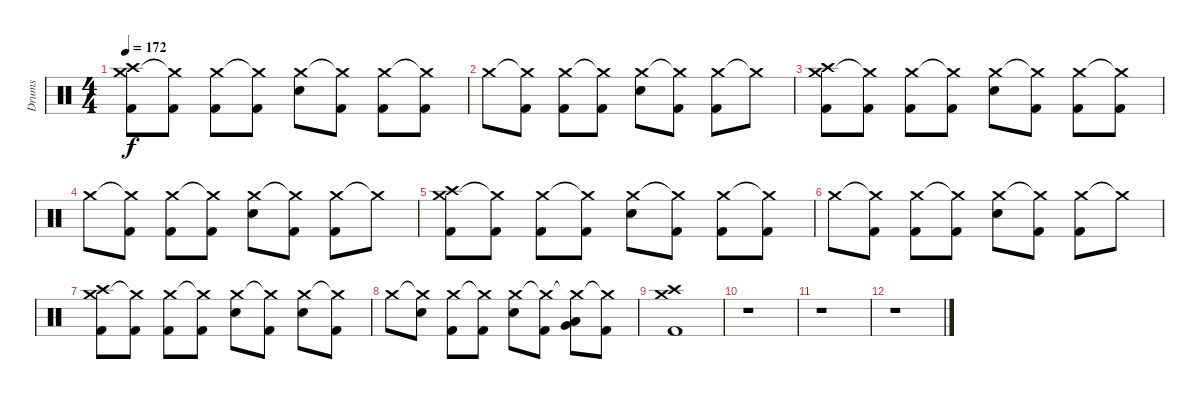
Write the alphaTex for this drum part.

\track ("Drums" "Drums") {instrument percussion}
\staff {score}
\articulation defaults
\ts (4 4)
\tempo 172
\clef neutral
\ks c
("Crash medium (hit)" "Crash high (hit)" "Kick (hit) 2").8{dy f} ("Crash medium (hit)"{t} "Kick (hit) 2").8 ("Crash medium (hit)" "Kick (hit) 2").8 ("Crash medium (hit)"{t} "Kick (hit) 2").8 ("Crash medium (hit)" "Electric Snare (hit)").8 ("Crash medium (hit)"{t} "Kick (hit) 2").8 ("Crash medium (hit)" "Kick (hit) 2").8 ("Crash medium (hit)"{t} "Kick (hit) 2").8 |
"Crash medium (hit)".8 ("Crash medium (hit)"{t} "Kick (hit) 2").8 ("Crash medium (hit)" "Kick (hit) 2").8 ("Crash medium (hit)"{t} "Kick (hit) 2").8 ("Crash medium (hit)" "Electric Snare (hit)").8 ("Crash medium (hit)"{t} "Kick (hit) 2").8 ("Crash medium (hit)" "Kick (hit) 2").8 "Crash medium (hit)"{t}.8 |
("Crash medium (hit)" "Crash high (hit)" "Kick (hit) 2").8 ("Crash medium (hit)"{t} "Kick (hit) 2").8 ("Crash medium (hit)" "Kick (hit) 2").8 ("Crash medium (hit)"{t} "Kick (hit) 2").8 ("Crash medium (hit)" "Electric Snare (hit)").8 ("Crash medium (hit)"{t} "Kick (hit) 2").8 ("Crash medium (hit)" "Kick (hit) 2").8 ("Crash medium (hit)"{t} "Kick (hit) 2").8 |
"Crash medium (hit)".8 ("Crash medium (hit)"{t} "Kick (hit) 2").8 ("Crash medium (hit)" "Kick (hit) 2").8 ("Crash medium (hit)"{t} "Kick (hit) 2").8 ("Crash medium (hit)" "Electric Snare (hit)").8 ("Crash medium (hit)"{t} "Kick (hit) 2").8 ("Crash medium (hit)" "Kick (hit) 2").8 "Crash medium (hit)"{t}.8 |
("Crash medium (hit)" "Crash high (hit)" "Kick (hit) 2").8 ("Crash medium (hit)"{t} "Kick (hit) 2").8 ("Crash medium (hit)" "Kick (hit) 2").8 ("Crash medium (hit)"{t} "Kick (hit) 2").8 ("Crash medium (hit)" "Electric Snare (hit)").8 ("Crash medium (hit)"{t} "Kick (hit) 2").8 ("Crash medium (hit)" "Kick (hit) 2").8 ("Crash medium (hit)"{t} "Kick (hit) 2").8 |
"Crash medium (hit)".8 ("Crash medium (hit)"{t} "Kick (hit) 2").8 ("Crash medium (hit)" "Kick (hit) 2").8 ("Crash medium (hit)"{t} "Kick (hit) 2").8 ("Crash medium (hit)" "Electric Snare (hit)").8 ("Crash medium (hit)"{t} "Kick (hit) 2").8 ("Crash medium (hit)" "Kick (hit) 2").8 "Crash medium (hit)"{t}.8 |
("Crash medium (hit)" "Crash high (hit)" "Kick (hit) 2").8 ("Crash medium (hit)"{t} "Kick (hit) 2").8 ("Crash medium (hit)" "Kick (hit) 2").8 ("Crash medium (hit)"{t} "Kick (hit) 2").8 ("Crash medium (hit)" "Electric Snare (hit)").8 ("Crash medium (hit)"{t} "Kick (hit) 2").8 ("Crash medium (hit)" "Electric Snare (hit)").8 ("Crash medium (hit)"{t} "Kick (hit) 2").8 |
"Crash medium (hit)".8 ("Crash medium (hit)"{t} "Electric Snare (hit)").8 ("Crash medium (hit)" "Kick (hit) 2").8 ("Crash medium (hit)"{t} "Kick (hit) 2").8 ("Crash medium (hit)" "Electric Snare (hit)").8 ("Crash medium (hit)"{t} "Kick (hit) 2").8 ("Crash medium (hit)"{t} "Low Floor Tom (hit)" "Very Low Tom (hit)").8 ("Crash medium (hit)"{t} "Kick (hit) 2").8 |
("Crash medium (hit)" "Crash high (hit)" "Kick (hit) 2").1 |
r.1 |
r.1 |
r.1
